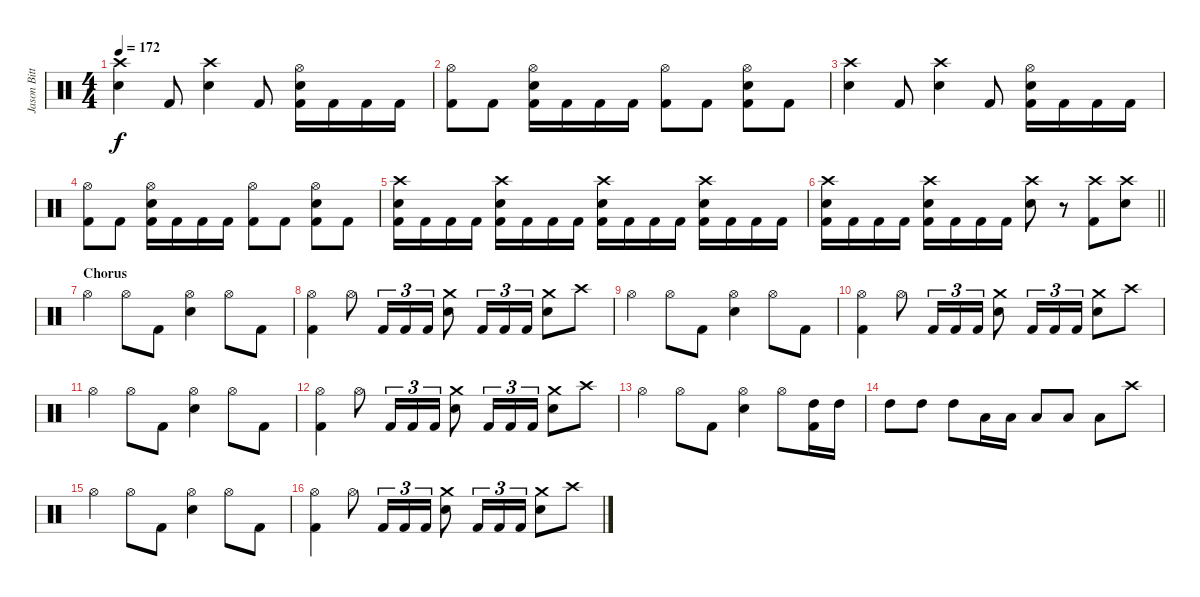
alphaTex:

\track ("Jason Bittner" "Jason Bitt") {instrument percussion}
\staff {score}
\articulation defaults
\ts (4 4)
\tempo 172
\clef neutral
\ks c
("Crash high (hit)" "Electric Snare (hit)").4{dy f} "Kick (hit) 2".8 ("Crash high (hit)" "Electric Snare (hit)").4 "Kick (hit) 2".8 ("Hi-Hat (open)" "Electric Snare (hit)" "Kick (hit) 2").16 "Kick (hit) 2".16 "Kick (hit) 2".16 "Kick (hit) 2".16 |
("Hi-Hat (open)" "Kick (hit) 2").8 "Kick (hit) 2".8 ("Hi-Hat (open)" "Electric Snare (hit)" "Kick (hit) 2").16 "Kick (hit) 2".16 "Kick (hit) 2".16 "Kick (hit) 2".16 ("Hi-Hat (open)" "Kick (hit) 2").8 "Kick (hit) 2".8 ("Hi-Hat (open)" "Electric Snare (hit)" "Kick (hit) 2").8 "Kick (hit) 2".8 |
("Crash high (hit)" "Electric Snare (hit)").4 "Kick (hit) 2".8 ("Crash high (hit)" "Electric Snare (hit)").4 "Kick (hit) 2".8 ("Hi-Hat (open)" "Electric Snare (hit)" "Kick (hit) 2").16 "Kick (hit) 2".16 "Kick (hit) 2".16 "Kick (hit) 2".16 |
("Hi-Hat (open)" "Kick (hit) 2").8 "Kick (hit) 2".8 ("Hi-Hat (open)" "Electric Snare (hit)" "Kick (hit) 2").16 "Kick (hit) 2".16 "Kick (hit) 2".16 "Kick (hit) 2".16 ("Hi-Hat (open)" "Kick (hit) 2").8 "Kick (hit) 2".8 ("Hi-Hat (open)" "Electric Snare (hit)" "Kick (hit) 2").8 "Kick (hit) 2".8 |
("Crash high (hit)" "Electric Snare (hit)" "Kick (hit) 2").16 "Kick (hit) 2".16 "Kick (hit) 2".16 "Kick (hit) 2".16 ("Crash high (hit)" "Electric Snare (hit)" "Kick (hit) 2").16 "Kick (hit) 2".16 "Kick (hit) 2".16 "Kick (hit) 2".16 ("Crash high (hit)" "Electric Snare (hit)" "Kick (hit) 2").16 "Kick (hit) 2".16 "Kick (hit) 2".16 "Kick (hit) 2".16 ("Crash high (hit)" "Electric Snare (hit)" "Kick (hit) 2").16 "Kick (hit) 2".16 "Kick (hit) 2".16 "Kick (hit) 2".16 |
\barLineRight lightlight
("Crash high (hit)" "Electric Snare (hit)" "Kick (hit) 2").16 "Kick (hit) 2".16 "Kick (hit) 2".16 "Kick (hit) 2".16 ("Crash high (hit)" "Electric Snare (hit)" "Kick (hit) 2").16 "Kick (hit) 2".16 "Kick (hit) 2".16 "Kick (hit) 2".16 ("Crash high (hit)" "Electric Snare (hit)").8 r.8{volume 0} ("Crash high (hit)" "Kick (hit) 2").8{volume 13} ("Crash high (hit)" "Electric Snare (hit)").8 |
\section ("" "Chorus")
"Hi-Hat (open)".4 "Hi-Hat (open)".8 "Kick (hit) 2".8 ("Hi-Hat (open)" "Electric Snare (hit)").4 "Hi-Hat (open)".8 "Kick (hit) 2".8 |
("Hi-Hat (open)" "Kick (hit) 2").4 "Hi-Hat (open)".8 "Kick (hit) 2".16{tu (3 2)} "Kick (hit) 2".16{tu (3 2)} "Kick (hit) 2".16{tu (3 2)} ("Crash medium (hit)" "Electric Snare (hit)").8 "Kick (hit) 2".16{tu (3 2)} "Kick (hit) 2".16{tu (3 2)} "Kick (hit) 2".16{tu (3 2)} ("Crash medium (hit)" "Electric Snare (hit)").8 "Crash high (hit)".8 |
"Hi-Hat (open)".4 "Hi-Hat (open)".8 "Kick (hit) 2".8 ("Hi-Hat (open)" "Electric Snare (hit)").4 "Hi-Hat (open)".8 "Kick (hit) 2".8 |
("Hi-Hat (open)" "Kick (hit) 2").4 "Hi-Hat (open)".8 "Kick (hit) 2".16{tu (3 2)} "Kick (hit) 2".16{tu (3 2)} "Kick (hit) 2".16{tu (3 2)} ("Crash medium (hit)" "Electric Snare (hit)").8 "Kick (hit) 2".16{tu (3 2)} "Kick (hit) 2".16{tu (3 2)} "Kick (hit) 2".16{tu (3 2)} ("Crash medium (hit)" "Electric Snare (hit)").8 "Crash high (hit)".8 |
"Hi-Hat (open)".4 "Hi-Hat (open)".8 "Kick (hit) 2".8 ("Hi-Hat (open)" "Electric Snare (hit)").4 "Hi-Hat (open)".8 "Kick (hit) 2".8 |
("Hi-Hat (open)" "Kick (hit) 2").4 "Hi-Hat (open)".8 "Kick (hit) 2".16{tu (3 2)} "Kick (hit) 2".16{tu (3 2)} "Kick (hit) 2".16{tu (3 2)} ("Crash medium (hit)" "Electric Snare (hit)").8 "Kick (hit) 2".16{tu (3 2)} "Kick (hit) 2".16{tu (3 2)} "Kick (hit) 2".16{tu (3 2)} ("Crash medium (hit)" "Electric Snare (hit)").8 "Crash high (hit)".8 |
"Hi-Hat (open)".4 "Hi-Hat (open)".8 "Kick (hit) 2".8 ("Hi-Hat (open)" "Electric Snare (hit)").4 "Hi-Hat (open)".8 ("High Tom (hit)" "Kick (hit) 2").16 "High Tom (hit)".16 |
"High Tom (hit)".8 "High Tom (hit)".8 "High Tom (hit)".8 "Low Tom (hit)".16 "Low Tom (hit)".16 "Low Tom (hit)".8 "Low Tom (hit)".8 "Low Tom (hit)".8 "Crash high (hit)".8 |
"Hi-Hat (open)".4 "Hi-Hat (open)".8 "Kick (hit) 2".8 ("Hi-Hat (open)" "Electric Snare (hit)").4 "Hi-Hat (open)".8 "Kick (hit) 2".8 |
("Hi-Hat (open)" "Kick (hit) 2").4 "Hi-Hat (open)".8 "Kick (hit) 2".16{tu (3 2)} "Kick (hit) 2".16{tu (3 2)} "Kick (hit) 2".16{tu (3 2)} ("Crash medium (hit)" "Electric Snare (hit)").8 "Kick (hit) 2".16{tu (3 2)} "Kick (hit) 2".16{tu (3 2)} "Kick (hit) 2".16{tu (3 2)} ("Crash medium (hit)" "Electric Snare (hit)").8 "Crash high (hit)".8
